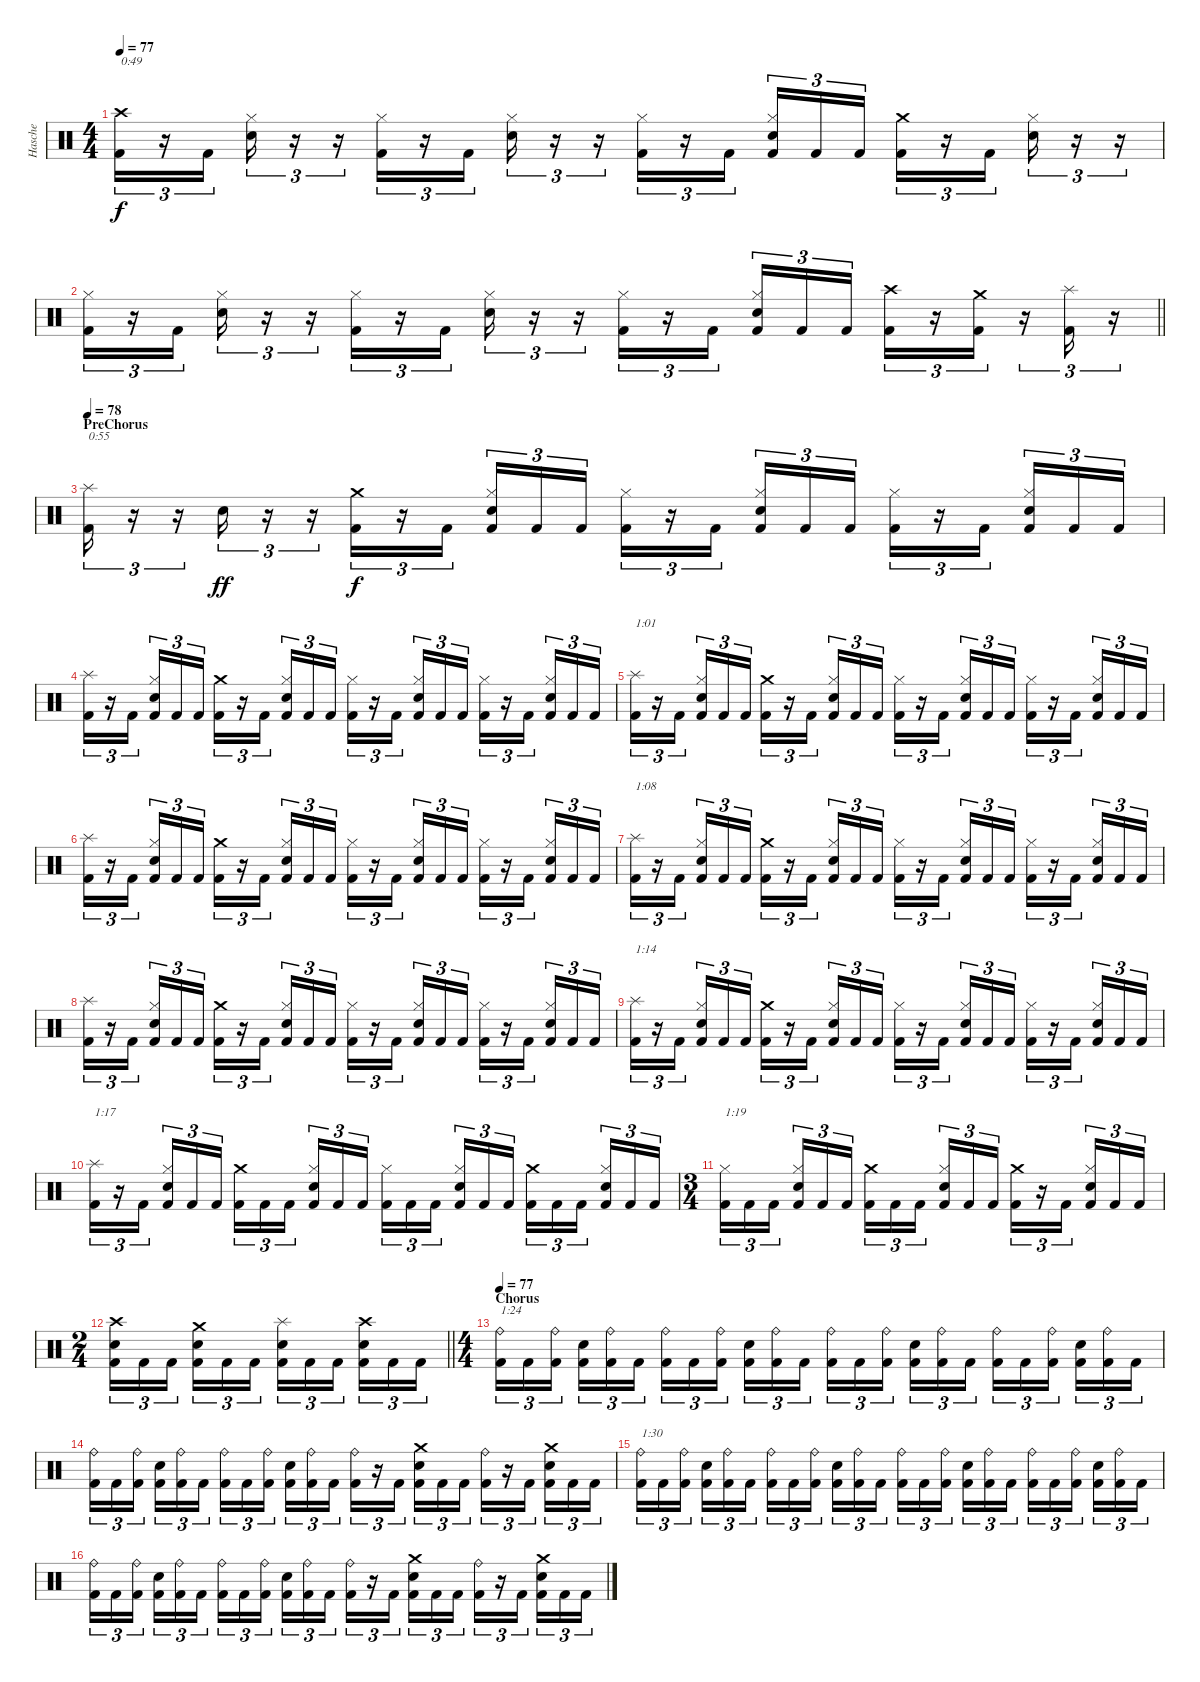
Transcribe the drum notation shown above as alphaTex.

\track ("Hasche" "Hasche") {instrument percussion}
\staff {score}
\articulation defaults
\ts (4 4)
\tempo 77
\clef neutral
\ks c
("Crash high (hit)" "Kick (hit) 2").16{tu (3 2) txt "0:49" dy f} r.16{tu (3 2)} "Kick (hit) 2".16{tu (3 2)} ("Hi-Hat (closed)" "Snare (hit) 2").16{tu (3 2)} r.16{tu (3 2)} r.16{tu (3 2)} ("Hi-Hat (closed)" "Kick (hit) 2").16{tu (3 2)} r.16{tu (3 2)} "Kick (hit) 2".16{tu (3 2)} ("Hi-Hat (closed)" "Snare (hit) 2").16{tu (3 2)} r.16{tu (3 2)} r.16{tu (3 2)} ("Hi-Hat (closed)" "Kick (hit) 2").16{tu (3 2)} r.16{tu (3 2)} "Kick (hit) 2".16{tu (3 2) beam splitsecondary} ("Hi-Hat (closed)" "Snare (hit) 2" "Kick (hit) 2").16{tu (3 2)} "Kick (hit) 2".16{tu (3 2)} "Kick (hit) 2".16{tu (3 2)} ("Crash medium (hit)" "Kick (hit) 2").16{tu (3 2)} r.16{tu (3 2)} "Kick (hit) 2".16{tu (3 2)} ("Hi-Hat (closed)" "Snare (hit) 2").16{tu (3 2)} r.16{tu (3 2)} r.16{tu (3 2)} |
\barLineRight lightlight
("Hi-Hat (closed)" "Kick (hit) 2").16{tu (3 2)} r.16{tu (3 2)} "Kick (hit) 2".16{tu (3 2)} ("Hi-Hat (closed)" "Snare (hit) 2").16{tu (3 2)} r.16{tu (3 2)} r.16{tu (3 2)} ("Hi-Hat (closed)" "Kick (hit) 2").16{tu (3 2)} r.16{tu (3 2)} "Kick (hit) 2".16{tu (3 2)} ("Hi-Hat (closed)" "Snare (hit) 2").16{tu (3 2)} r.16{tu (3 2)} r.16{tu (3 2)} ("Hi-Hat (closed)" "Kick (hit) 2").16{tu (3 2)} r.16{tu (3 2)} "Kick (hit) 2".16{tu (3 2) beam splitsecondary} ("Hi-Hat (closed)" "Snare (hit) 2" "Kick (hit) 2").16{tu (3 2)} "Kick (hit) 2".16{tu (3 2)} "Kick (hit) 2".16{tu (3 2)} ("Crash high (hit)" "Kick (hit) 2").16{tu (3 2)} r.16{tu (3 2)} ("Crash medium (hit)" "Kick (hit) 2").16{tu (3 2)} r.16{tu (3 2)} ("Splash (hit)" "Kick (hit) 2").16{tu (3 2)} r.16{tu (3 2)} |
\section ("" "PreChorus")
\tempo 78
("Splash (hit)" "Kick (hit) 2").16{tu (3 2) txt "0:55"} r.16{tu (3 2)} r.16{tu (3 2)} "Snare (hit) 2".16{tu (3 2) dy ff} r.16{tu (3 2)} r.16{tu (3 2)} ("Crash medium (hit)" "Kick (hit) 2").16{tu (3 2) dy f} r.16{tu (3 2)} "Kick (hit) 2".16{tu (3 2) beam splitsecondary} ("Hi-Hat (closed)" "Snare (hit) 2" "Kick (hit) 2").16{tu (3 2)} "Kick (hit) 2".16{tu (3 2)} "Kick (hit) 2".16{tu (3 2)} ("Hi-Hat (closed)" "Kick (hit) 2").16{tu (3 2)} r.16{tu (3 2)} "Kick (hit) 2".16{tu (3 2) beam splitsecondary} ("Hi-Hat (closed)" "Snare (hit) 2" "Kick (hit) 2").16{tu (3 2)} "Kick (hit) 2".16{tu (3 2)} "Kick (hit) 2".16{tu (3 2)} ("Hi-Hat (closed)" "Kick (hit) 2").16{tu (3 2)} r.16{tu (3 2)} "Kick (hit) 2".16{tu (3 2) beam splitsecondary} ("Hi-Hat (closed)" "Snare (hit) 2" "Kick (hit) 2").16{tu (3 2)} "Kick (hit) 2".16{tu (3 2)} "Kick (hit) 2".16{tu (3 2)} |
("Splash (hit)" "Kick (hit) 2").16{tu (3 2)} r.16{tu (3 2)} "Kick (hit) 2".16{tu (3 2) beam splitsecondary} ("Hi-Hat (closed)" "Snare (hit) 2" "Kick (hit) 2").16{tu (3 2)} "Kick (hit) 2".16{tu (3 2)} "Kick (hit) 2".16{tu (3 2)} ("Crash medium (hit)" "Kick (hit) 2").16{tu (3 2)} r.16{tu (3 2)} "Kick (hit) 2".16{tu (3 2) beam splitsecondary} ("Hi-Hat (closed)" "Snare (hit) 2" "Kick (hit) 2").16{tu (3 2)} "Kick (hit) 2".16{tu (3 2)} "Kick (hit) 2".16{tu (3 2)} ("Hi-Hat (closed)" "Kick (hit) 2").16{tu (3 2)} r.16{tu (3 2)} "Kick (hit) 2".16{tu (3 2) beam splitsecondary} ("Hi-Hat (closed)" "Snare (hit) 2" "Kick (hit) 2").16{tu (3 2)} "Kick (hit) 2".16{tu (3 2)} "Kick (hit) 2".16{tu (3 2)} ("Hi-Hat (closed)" "Kick (hit) 2").16{tu (3 2)} r.16{tu (3 2)} "Kick (hit) 2".16{tu (3 2) beam splitsecondary} ("Hi-Hat (closed)" "Snare (hit) 2" "Kick (hit) 2").16{tu (3 2)} "Kick (hit) 2".16{tu (3 2)} "Kick (hit) 2".16{tu (3 2)} |
("Splash (hit)" "Kick (hit) 2").16{tu (3 2) txt "1:01"} r.16{tu (3 2)} "Kick (hit) 2".16{tu (3 2) beam splitsecondary} ("Hi-Hat (closed)" "Snare (hit) 2" "Kick (hit) 2").16{tu (3 2)} "Kick (hit) 2".16{tu (3 2)} "Kick (hit) 2".16{tu (3 2)} ("Crash medium (hit)" "Kick (hit) 2").16{tu (3 2)} r.16{tu (3 2)} "Kick (hit) 2".16{tu (3 2) beam splitsecondary} ("Hi-Hat (closed)" "Snare (hit) 2" "Kick (hit) 2").16{tu (3 2)} "Kick (hit) 2".16{tu (3 2)} "Kick (hit) 2".16{tu (3 2)} ("Hi-Hat (closed)" "Kick (hit) 2").16{tu (3 2)} r.16{tu (3 2)} "Kick (hit) 2".16{tu (3 2) beam splitsecondary} ("Hi-Hat (closed)" "Snare (hit) 2" "Kick (hit) 2").16{tu (3 2)} "Kick (hit) 2".16{tu (3 2)} "Kick (hit) 2".16{tu (3 2)} ("Hi-Hat (closed)" "Kick (hit) 2").16{tu (3 2)} r.16{tu (3 2)} "Kick (hit) 2".16{tu (3 2) beam splitsecondary} ("Hi-Hat (closed)" "Snare (hit) 2" "Kick (hit) 2").16{tu (3 2)} "Kick (hit) 2".16{tu (3 2)} "Kick (hit) 2".16{tu (3 2)} |
("Splash (hit)" "Kick (hit) 2").16{tu (3 2)} r.16{tu (3 2)} "Kick (hit) 2".16{tu (3 2) beam splitsecondary} ("Hi-Hat (closed)" "Snare (hit) 2" "Kick (hit) 2").16{tu (3 2)} "Kick (hit) 2".16{tu (3 2)} "Kick (hit) 2".16{tu (3 2)} ("Crash medium (hit)" "Kick (hit) 2").16{tu (3 2)} r.16{tu (3 2)} "Kick (hit) 2".16{tu (3 2) beam splitsecondary} ("Hi-Hat (closed)" "Snare (hit) 2" "Kick (hit) 2").16{tu (3 2)} "Kick (hit) 2".16{tu (3 2)} "Kick (hit) 2".16{tu (3 2)} ("Hi-Hat (closed)" "Kick (hit) 2").16{tu (3 2)} r.16{tu (3 2)} "Kick (hit) 2".16{tu (3 2) beam splitsecondary} ("Hi-Hat (closed)" "Snare (hit) 2" "Kick (hit) 2").16{tu (3 2)} "Kick (hit) 2".16{tu (3 2)} "Kick (hit) 2".16{tu (3 2)} ("Hi-Hat (closed)" "Kick (hit) 2").16{tu (3 2)} r.16{tu (3 2)} "Kick (hit) 2".16{tu (3 2) beam splitsecondary} ("Hi-Hat (closed)" "Snare (hit) 2" "Kick (hit) 2").16{tu (3 2)} "Kick (hit) 2".16{tu (3 2)} "Kick (hit) 2".16{tu (3 2)} |
("Splash (hit)" "Kick (hit) 2").16{tu (3 2) txt "1:08"} r.16{tu (3 2)} "Kick (hit) 2".16{tu (3 2) beam splitsecondary} ("Hi-Hat (closed)" "Snare (hit) 2" "Kick (hit) 2").16{tu (3 2)} "Kick (hit) 2".16{tu (3 2)} "Kick (hit) 2".16{tu (3 2)} ("Crash medium (hit)" "Kick (hit) 2").16{tu (3 2)} r.16{tu (3 2)} "Kick (hit) 2".16{tu (3 2) beam splitsecondary} ("Hi-Hat (closed)" "Snare (hit) 2" "Kick (hit) 2").16{tu (3 2)} "Kick (hit) 2".16{tu (3 2)} "Kick (hit) 2".16{tu (3 2)} ("Hi-Hat (closed)" "Kick (hit) 2").16{tu (3 2)} r.16{tu (3 2)} "Kick (hit) 2".16{tu (3 2) beam splitsecondary} ("Hi-Hat (closed)" "Snare (hit) 2" "Kick (hit) 2").16{tu (3 2)} "Kick (hit) 2".16{tu (3 2)} "Kick (hit) 2".16{tu (3 2)} ("Hi-Hat (closed)" "Kick (hit) 2").16{tu (3 2)} r.16{tu (3 2)} "Kick (hit) 2".16{tu (3 2) beam splitsecondary} ("Hi-Hat (closed)" "Snare (hit) 2" "Kick (hit) 2").16{tu (3 2)} "Kick (hit) 2".16{tu (3 2)} "Kick (hit) 2".16{tu (3 2)} |
("Splash (hit)" "Kick (hit) 2").16{tu (3 2)} r.16{tu (3 2)} "Kick (hit) 2".16{tu (3 2) beam splitsecondary} ("Hi-Hat (closed)" "Snare (hit) 2" "Kick (hit) 2").16{tu (3 2)} "Kick (hit) 2".16{tu (3 2)} "Kick (hit) 2".16{tu (3 2)} ("Crash medium (hit)" "Kick (hit) 2").16{tu (3 2)} r.16{tu (3 2)} "Kick (hit) 2".16{tu (3 2) beam splitsecondary} ("Hi-Hat (closed)" "Snare (hit) 2" "Kick (hit) 2").16{tu (3 2)} "Kick (hit) 2".16{tu (3 2)} "Kick (hit) 2".16{tu (3 2)} ("Hi-Hat (closed)" "Kick (hit) 2").16{tu (3 2)} r.16{tu (3 2)} "Kick (hit) 2".16{tu (3 2) beam splitsecondary} ("Hi-Hat (closed)" "Snare (hit) 2" "Kick (hit) 2").16{tu (3 2)} "Kick (hit) 2".16{tu (3 2)} "Kick (hit) 2".16{tu (3 2)} ("Hi-Hat (closed)" "Kick (hit) 2").16{tu (3 2)} r.16{tu (3 2)} "Kick (hit) 2".16{tu (3 2) beam splitsecondary} ("Hi-Hat (closed)" "Snare (hit) 2" "Kick (hit) 2").16{tu (3 2)} "Kick (hit) 2".16{tu (3 2)} "Kick (hit) 2".16{tu (3 2)} |
("Splash (hit)" "Kick (hit) 2").16{tu (3 2) txt "1:14"} r.16{tu (3 2)} "Kick (hit) 2".16{tu (3 2) beam splitsecondary} ("Hi-Hat (closed)" "Snare (hit) 2" "Kick (hit) 2").16{tu (3 2)} "Kick (hit) 2".16{tu (3 2)} "Kick (hit) 2".16{tu (3 2)} ("Crash medium (hit)" "Kick (hit) 2").16{tu (3 2)} r.16{tu (3 2)} "Kick (hit) 2".16{tu (3 2) beam splitsecondary} ("Hi-Hat (closed)" "Snare (hit) 2" "Kick (hit) 2").16{tu (3 2)} "Kick (hit) 2".16{tu (3 2)} "Kick (hit) 2".16{tu (3 2)} ("Hi-Hat (closed)" "Kick (hit) 2").16{tu (3 2)} r.16{tu (3 2)} "Kick (hit) 2".16{tu (3 2) beam splitsecondary} ("Hi-Hat (closed)" "Snare (hit) 2" "Kick (hit) 2").16{tu (3 2)} "Kick (hit) 2".16{tu (3 2)} "Kick (hit) 2".16{tu (3 2)} ("Hi-Hat (closed)" "Kick (hit) 2").16{tu (3 2)} r.16{tu (3 2)} "Kick (hit) 2".16{tu (3 2) beam splitsecondary} ("Hi-Hat (closed)" "Snare (hit) 2" "Kick (hit) 2").16{tu (3 2)} "Kick (hit) 2".16{tu (3 2)} "Kick (hit) 2".16{tu (3 2)} |
("Splash (hit)" "Kick (hit) 2").16{tu (3 2) txt "1:17"} r.16{tu (3 2)} "Kick (hit) 2".16{tu (3 2) beam splitsecondary} ("Hi-Hat (closed)" "Snare (hit) 2" "Kick (hit) 2").16{tu (3 2)} "Kick (hit) 2".16{tu (3 2)} "Kick (hit) 2".16{tu (3 2)} ("Crash medium (hit)" "Kick (hit) 2").16{tu (3 2)} "Kick (hit) 2".16{tu (3 2)} "Kick (hit) 2".16{tu (3 2) beam splitsecondary} ("Hi-Hat (closed)" "Snare (hit) 2" "Kick (hit) 2").16{tu (3 2)} "Kick (hit) 2".16{tu (3 2)} "Kick (hit) 2".16{tu (3 2)} ("Hi-Hat (closed)" "Kick (hit) 2").16{tu (3 2)} "Kick (hit) 2".16{tu (3 2)} "Kick (hit) 2".16{tu (3 2) beam splitsecondary} ("Hi-Hat (closed)" "Snare (hit) 2" "Kick (hit) 2").16{tu (3 2)} "Kick (hit) 2".16{tu (3 2)} "Kick (hit) 2".16{tu (3 2)} ("Crash medium (hit)" "Kick (hit) 2").16{tu (3 2)} "Kick (hit) 2".16{tu (3 2)} "Kick (hit) 2".16{tu (3 2) beam splitsecondary} ("Hi-Hat (closed)" "Snare (hit) 2" "Kick (hit) 2").16{tu (3 2)} "Kick (hit) 2".16{tu (3 2)} "Kick (hit) 2".16{tu (3 2)} |
\ts (3 4)
("Hi-Hat (closed)" "Kick (hit) 2").16{tu (3 2) txt "1:19"} "Kick (hit) 2".16{tu (3 2)} "Kick (hit) 2".16{tu (3 2) beam splitsecondary} ("Hi-Hat (closed)" "Snare (hit) 2" "Kick (hit) 2").16{tu (3 2)} "Kick (hit) 2".16{tu (3 2)} "Kick (hit) 2".16{tu (3 2)} ("Crash medium (hit)" "Kick (hit) 2").16{tu (3 2)} "Kick (hit) 2".16{tu (3 2)} "Kick (hit) 2".16{tu (3 2) beam splitsecondary} ("Hi-Hat (closed)" "Snare (hit) 2" "Kick (hit) 2").16{tu (3 2)} "Kick (hit) 2".16{tu (3 2)} "Kick (hit) 2".16{tu (3 2)} ("Crash medium (hit)" "Kick (hit) 2").16{tu (3 2)} r.16{tu (3 2)} "Kick (hit) 2".16{tu (3 2) beam splitsecondary} ("Hi-Hat (closed)" "Snare (hit) 2" "Kick (hit) 2").16{tu (3 2)} "Kick (hit) 2".16{tu (3 2)} "Kick (hit) 2".16{tu (3 2)} |
\ts (2 4)
\barLineRight lightlight
("Crash high (hit)" "Snare (hit) 2" "Kick (hit) 2").16{tu (3 2)} "Kick (hit) 2".16{tu (3 2)} "Kick (hit) 2".16{tu (3 2) beam splitsecondary} ("Crash medium (hit)" "Snare (hit) 2" "Kick (hit) 2").16{tu (3 2)} "Kick (hit) 2".16{tu (3 2)} "Kick (hit) 2".16{tu (3 2)} ("Splash (hit)" "Snare (hit) 2" "Kick (hit) 2").16{tu (3 2)} "Kick (hit) 2".16{tu (3 2)} "Kick (hit) 2".16{tu (3 2) beam splitsecondary} ("Crash high (hit)" "Snare (hit) 2" "Kick (hit) 2").16{tu (3 2)} "Kick (hit) 2".16{tu (3 2)} "Kick (hit) 2".16{tu (3 2)} |
\ts (4 4)
\section ("" "Chorus")
\tempo 77
("Ride (bell)" "Kick (hit) 2").16{tu (3 2) txt "1:24"} "Kick (hit) 2".16{tu (3 2)} ("Ride (bell)" "Kick (hit) 2").16{tu (3 2) beam splitsecondary} ("Snare (hit) 2" "Kick (hit) 2").16{tu (3 2)} ("Ride (bell)" "Kick (hit) 2").16{tu (3 2)} "Kick (hit) 2".16{tu (3 2)} ("Ride (bell)" "Kick (hit) 2").16{tu (3 2)} "Kick (hit) 2".16{tu (3 2)} ("Ride (bell)" "Kick (hit) 2").16{tu (3 2) beam splitsecondary} ("Snare (hit) 2" "Kick (hit) 2").16{tu (3 2)} ("Ride (bell)" "Kick (hit) 2").16{tu (3 2)} "Kick (hit) 2".16{tu (3 2)} ("Ride (bell)" "Kick (hit) 2").16{tu (3 2)} "Kick (hit) 2".16{tu (3 2)} ("Ride (bell)" "Kick (hit) 2").16{tu (3 2) beam splitsecondary} ("Snare (hit) 2" "Kick (hit) 2").16{tu (3 2)} ("Ride (bell)" "Kick (hit) 2").16{tu (3 2)} "Kick (hit) 2".16{tu (3 2)} ("Ride (bell)" "Kick (hit) 2").16{tu (3 2)} "Kick (hit) 2".16{tu (3 2)} ("Ride (bell)" "Kick (hit) 2").16{tu (3 2) beam splitsecondary} ("Snare (hit) 2" "Kick (hit) 2").16{tu (3 2)} ("Ride (bell)" "Kick (hit) 2").16{tu (3 2)} "Kick (hit) 2".16{tu (3 2)} |
("Ride (bell)" "Kick (hit) 2").16{tu (3 2)} "Kick (hit) 2".16{tu (3 2)} ("Ride (bell)" "Kick (hit) 2").16{tu (3 2) beam splitsecondary} ("Snare (hit) 2" "Kick (hit) 2").16{tu (3 2)} ("Ride (bell)" "Kick (hit) 2").16{tu (3 2)} "Kick (hit) 2".16{tu (3 2)} ("Ride (bell)" "Kick (hit) 2").16{tu (3 2)} "Kick (hit) 2".16{tu (3 2)} ("Ride (bell)" "Kick (hit) 2").16{tu (3 2) beam splitsecondary} ("Snare (hit) 2" "Kick (hit) 2").16{tu (3 2)} ("Ride (bell)" "Kick (hit) 2").16{tu (3 2)} "Kick (hit) 2".16{tu (3 2)} ("Ride (bell)" "Kick (hit) 2").16{tu (3 2)} r.16{tu (3 2)} "Kick (hit) 2".16{tu (3 2) beam splitsecondary} ("Crash medium (hit)" "Snare (hit) 2" "Kick (hit) 2").16{tu (3 2)} "Kick (hit) 2".16{tu (3 2)} "Kick (hit) 2".16{tu (3 2)} ("Ride (bell)" "Kick (hit) 2").16{tu (3 2)} r.16{tu (3 2)} "Kick (hit) 2".16{tu (3 2) beam splitsecondary} ("Crash medium (hit)" "Snare (hit) 2" "Kick (hit) 2").16{tu (3 2)} "Kick (hit) 2".16{tu (3 2)} "Kick (hit) 2".16{tu (3 2)} |
("Ride (bell)" "Kick (hit) 2").16{tu (3 2) txt "1:30"} "Kick (hit) 2".16{tu (3 2)} ("Ride (bell)" "Kick (hit) 2").16{tu (3 2) beam splitsecondary} ("Snare (hit) 2" "Kick (hit) 2").16{tu (3 2)} ("Ride (bell)" "Kick (hit) 2").16{tu (3 2)} "Kick (hit) 2".16{tu (3 2)} ("Ride (bell)" "Kick (hit) 2").16{tu (3 2)} "Kick (hit) 2".16{tu (3 2)} ("Ride (bell)" "Kick (hit) 2").16{tu (3 2) beam splitsecondary} ("Snare (hit) 2" "Kick (hit) 2").16{tu (3 2)} ("Ride (bell)" "Kick (hit) 2").16{tu (3 2)} "Kick (hit) 2".16{tu (3 2)} ("Ride (bell)" "Kick (hit) 2").16{tu (3 2)} "Kick (hit) 2".16{tu (3 2)} ("Ride (bell)" "Kick (hit) 2").16{tu (3 2) beam splitsecondary} ("Snare (hit) 2" "Kick (hit) 2").16{tu (3 2)} ("Ride (bell)" "Kick (hit) 2").16{tu (3 2)} "Kick (hit) 2".16{tu (3 2)} ("Ride (bell)" "Kick (hit) 2").16{tu (3 2)} "Kick (hit) 2".16{tu (3 2)} ("Ride (bell)" "Kick (hit) 2").16{tu (3 2) beam splitsecondary} ("Snare (hit) 2" "Kick (hit) 2").16{tu (3 2)} ("Ride (bell)" "Kick (hit) 2").16{tu (3 2)} "Kick (hit) 2".16{tu (3 2)} |
("Ride (bell)" "Kick (hit) 2").16{tu (3 2)} "Kick (hit) 2".16{tu (3 2)} ("Ride (bell)" "Kick (hit) 2").16{tu (3 2) beam splitsecondary} ("Snare (hit) 2" "Kick (hit) 2").16{tu (3 2)} ("Ride (bell)" "Kick (hit) 2").16{tu (3 2)} "Kick (hit) 2".16{tu (3 2)} ("Ride (bell)" "Kick (hit) 2").16{tu (3 2)} "Kick (hit) 2".16{tu (3 2)} ("Ride (bell)" "Kick (hit) 2").16{tu (3 2) beam splitsecondary} ("Snare (hit) 2" "Kick (hit) 2").16{tu (3 2)} ("Ride (bell)" "Kick (hit) 2").16{tu (3 2)} "Kick (hit) 2".16{tu (3 2)} ("Ride (bell)" "Kick (hit) 2").16{tu (3 2)} r.16{tu (3 2)} "Kick (hit) 2".16{tu (3 2) beam splitsecondary} ("Crash medium (hit)" "Snare (hit) 2" "Kick (hit) 2").16{tu (3 2)} "Kick (hit) 2".16{tu (3 2)} "Kick (hit) 2".16{tu (3 2)} ("Ride (bell)" "Kick (hit) 2").16{tu (3 2)} r.16{tu (3 2)} "Kick (hit) 2".16{tu (3 2) beam splitsecondary} ("Crash medium (hit)" "Snare (hit) 2" "Kick (hit) 2").16{tu (3 2)} "Kick (hit) 2".16{tu (3 2)} "Kick (hit) 2".16{tu (3 2)}
